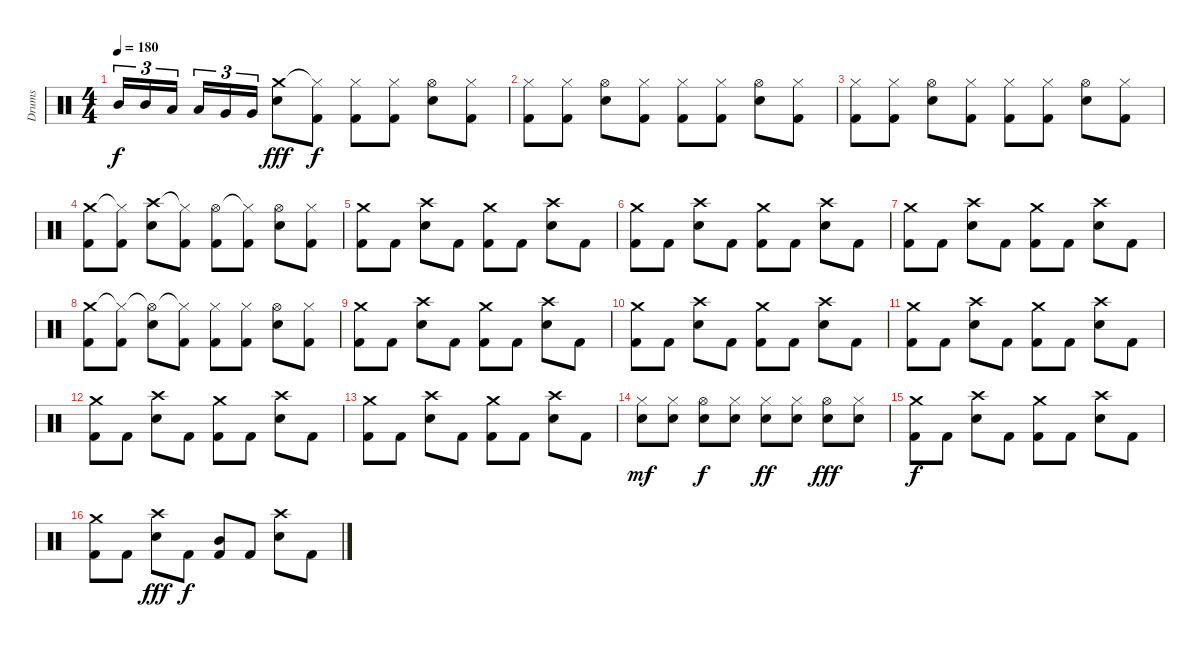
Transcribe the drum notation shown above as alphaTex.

\track ("Drums" "Drums") {instrument percussion}
\staff {score}
\articulation defaults
\ts (4 4)
\tempo 180
\clef neutral
\ks c "Mid Tom (hit)".16{tu (3 2) dy f} "Mid Tom (hit)".16{tu (3 2)} "Low Tom (hit)".16{tu (3 2) beam splitsecondary} "Low Tom (hit)".16{tu (3 2)} "Very Low Tom (hit)".16{tu (3 2)} "Very Low Tom (hit)".16{tu (3 2)}
("Crash medium (hit)" "Snare (hit) 2").8{dy fff} ("Hi-Hat (closed)"{t} "Kick (hit) 2").8{dy f} ("Hi-Hat (closed)" "Kick (hit) 2").8 ("Hi-Hat (closed)" "Kick (hit) 2").8 ("Hi-Hat (open)" "Snare (hit) 2").8 ("Hi-Hat (closed)" "Kick (hit) 2").8 |
("Hi-Hat (closed)" "Kick (hit) 2").8 ("Hi-Hat (closed)" "Kick (hit) 2").8 ("Hi-Hat (open)" "Snare (hit) 2").8 ("Hi-Hat (closed)" "Kick (hit) 2").8 ("Hi-Hat (closed)" "Kick (hit) 2").8 ("Hi-Hat (closed)" "Kick (hit) 2").8 ("Hi-Hat (open)" "Snare (hit) 2").8 ("Hi-Hat (closed)" "Kick (hit) 2").8 |
("Hi-Hat (closed)" "Kick (hit) 2").8 ("Hi-Hat (closed)" "Kick (hit) 2").8 ("Hi-Hat (open)" "Snare (hit) 2").8 ("Hi-Hat (closed)" "Kick (hit) 2").8 ("Hi-Hat (closed)" "Kick (hit) 2").8 ("Hi-Hat (closed)" "Kick (hit) 2").8 ("Hi-Hat (open)" "Snare (hit) 2").8 ("Hi-Hat (closed)" "Kick (hit) 2").8 |
("Crash medium (hit)" "Kick (hit) 2").8 ("Hi-Hat (closed)"{t} "Kick (hit) 2").8 ("Crash high (hit)" "Snare (hit) 2").8 ("Hi-Hat (closed)"{t} "Kick (hit) 2").8 ("Hi-Hat (open)" "Kick (hit) 2").8 ("Hi-Hat (closed)"{t} "Kick (hit) 2").8 ("Hi-Hat (open)" "Snare (hit) 2").8 ("Hi-Hat (closed)" "Kick (hit) 2").8 |
("Crash medium (hit)" "Kick (hit) 2").8 "Kick (hit) 2".8 ("Crash high (hit)" "Snare (hit) 2").8 "Kick (hit) 2".8 ("Crash medium (hit)" "Kick (hit) 2").8 "Kick (hit) 2".8 ("Crash high (hit)" "Snare (hit) 2").8 "Kick (hit) 2".8 |
("Crash medium (hit)" "Kick (hit) 2").8 "Kick (hit) 2".8 ("Crash high (hit)" "Snare (hit) 2").8 "Kick (hit) 2".8 ("Crash medium (hit)" "Kick (hit) 2").8 "Kick (hit) 2".8 ("Crash high (hit)" "Snare (hit) 2").8 "Kick (hit) 2".8 |
("Crash medium (hit)" "Kick (hit) 2").8 "Kick (hit) 2".8 ("Crash high (hit)" "Snare (hit) 2").8 "Kick (hit) 2".8 ("Crash medium (hit)" "Kick (hit) 2").8 "Kick (hit) 2".8 ("Crash high (hit)" "Snare (hit) 2").8 "Kick (hit) 2".8 |
("Crash medium (hit)" "Kick (hit) 2").8 ("Hi-Hat (closed)"{t} "Kick (hit) 2").8 ("Hi-Hat (open)"{t} "Snare (hit) 2").8 ("Hi-Hat (closed)"{t} "Kick (hit) 2").8 ("Hi-Hat (closed)" "Kick (hit) 2").8 ("Hi-Hat (closed)" "Kick (hit) 2").8 ("Hi-Hat (open)" "Snare (hit) 2").8 ("Hi-Hat (closed)" "Kick (hit) 2").8 |
("Crash medium (hit)" "Kick (hit) 2").8 "Kick (hit) 2".8 ("Crash high (hit)" "Snare (hit) 2").8 "Kick (hit) 2".8 ("Crash medium (hit)" "Kick (hit) 2").8 "Kick (hit) 2".8 ("Crash high (hit)" "Snare (hit) 2").8 "Kick (hit) 2".8 |
("Crash medium (hit)" "Kick (hit) 2").8 "Kick (hit) 2".8 ("Crash high (hit)" "Snare (hit) 2").8 "Kick (hit) 2".8 ("Crash medium (hit)" "Kick (hit) 2").8 "Kick (hit) 2".8 ("Crash high (hit)" "Snare (hit) 2").8 "Kick (hit) 2".8 |
("Crash medium (hit)" "Kick (hit) 2").8 "Kick (hit) 2".8 ("Crash high (hit)" "Snare (hit) 2").8 "Kick (hit) 2".8 ("Crash medium (hit)" "Kick (hit) 2").8 "Kick (hit) 2".8 ("Crash high (hit)" "Snare (hit) 2").8 "Kick (hit) 2".8 |
("Crash medium (hit)" "Kick (hit) 2").8 "Kick (hit) 2".8 ("Crash high (hit)" "Snare (hit) 2").8 "Kick (hit) 2".8 ("Crash medium (hit)" "Kick (hit) 2").8 "Kick (hit) 2".8 ("Crash high (hit)" "Snare (hit) 2").8 "Kick (hit) 2".8 |
("Crash medium (hit)" "Kick (hit) 2").8 "Kick (hit) 2".8 ("Crash high (hit)" "Snare (hit) 2").8 "Kick (hit) 2".8 ("Crash medium (hit)" "Kick (hit) 2").8 "Kick (hit) 2".8 ("Crash high (hit)" "Snare (hit) 2").8 "Kick (hit) 2".8 |
("Hi-Hat (closed)" "Snare (hit) 2").8{dy mf} ("Hi-Hat (closed)" "Snare (hit) 2").8 ("Hi-Hat (open)" "Snare (hit) 2").8{dy f} ("Hi-Hat (closed)" "Snare (hit) 2").8 ("Hi-Hat (closed)" "Snare (hit) 2").8{dy ff} ("Hi-Hat (closed)" "Snare (hit) 2").8 ("Hi-Hat (open)" "Snare (hit) 2").8{dy fff} ("Hi-Hat (closed)" "Snare (hit) 2").8 |
("Crash medium (hit)" "Kick (hit) 2").8{dy f} "Kick (hit) 2".8 ("Crash high (hit)" "Snare (hit) 2").8 "Kick (hit) 2".8 ("Crash medium (hit)" "Kick (hit) 2").8 "Kick (hit) 2".8 ("Crash high (hit)" "Snare (hit) 2").8 "Kick (hit) 2".8 |
("Crash medium (hit)" "Kick (hit) 2").8 "Kick (hit) 2".8 ("Crash high (hit)" "Snare (hit) 2").8{dy fff} "Kick (hit) 2".8{dy f} ("Mid Tom (hit)" "Kick (hit) 2").8 "Kick (hit) 2".8 ("Crash high (hit)" "Snare (hit) 2").8 "Kick (hit) 2".8
